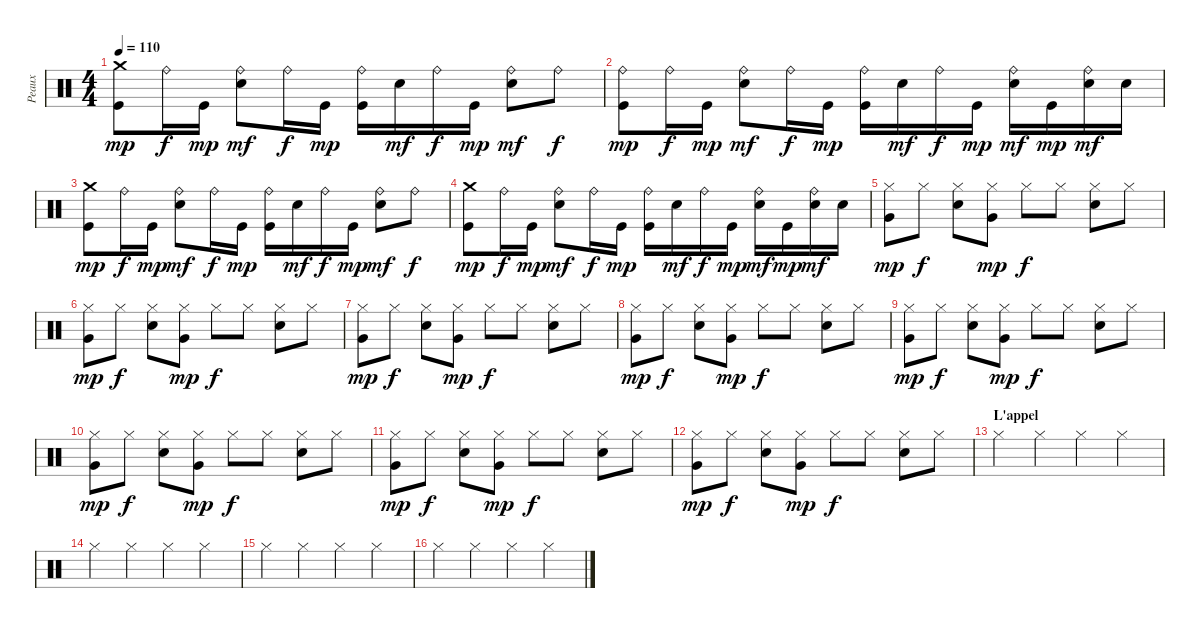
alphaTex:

\track ("Peaux" "Peaux") {instrument percussion}
\staff {score}
\articulation defaults
\ts (4 4)
\tempo 110
\clef neutral
\ks c
("Crash medium (hit)" "Kick (hit)").8{dy mp} "Ride (bell)".16{dy f} "Kick (hit)".16{dy mp} ("Ride (bell)" "Snare (hit) 2").8{dy mf} "Ride (bell)".16{dy f} "Kick (hit)".16{dy mp} ("Ride (bell)" "Kick (hit)").16 "Snare (hit) 2".16{dy mf} "Ride (bell)".16{dy f} "Kick (hit)".16{dy mp} ("Ride (bell)" "Snare (hit) 2").8{dy mf} "Ride (bell)".8{dy f} |
("Ride (bell)" "Kick (hit)").8{dy mp} "Ride (bell)".16{dy f} "Kick (hit)".16{dy mp} ("Ride (bell)" "Snare (hit) 2").8{dy mf} "Ride (bell)".16{dy f} "Kick (hit)".16{dy mp} ("Ride (bell)" "Kick (hit)").16 "Snare (hit) 2".16{dy mf} "Ride (bell)".16{dy f} "Kick (hit)".16{dy mp} ("Ride (bell)" "Snare (hit) 2").16{dy mf} "Kick (hit)".16{dy mp} ("Ride (bell)" "Snare (hit) 2").16{dy mf} "Snare (hit) 2".16 |
("Crash medium (hit)" "Kick (hit)").8{dy mp} "Ride (bell)".16{dy f} "Kick (hit)".16{dy mp} ("Ride (bell)" "Snare (hit) 2").8{dy mf} "Ride (bell)".16{dy f} "Kick (hit)".16{dy mp} ("Ride (bell)" "Kick (hit)").16 "Snare (hit) 2".16{dy mf} "Ride (bell)".16{dy f} "Kick (hit)".16{dy mp} ("Ride (bell)" "Snare (hit) 2").8{dy mf} "Ride (bell)".8{dy f} |
("Crash medium (hit)" "Kick (hit)").8{dy mp} "Ride (bell)".16{dy f} "Kick (hit)".16{dy mp} ("Ride (bell)" "Snare (hit) 2").8{dy mf} "Ride (bell)".16{dy f} "Kick (hit)".16{dy mp} ("Ride (bell)" "Kick (hit)").16 "Snare (hit) 2".16{dy mf} "Ride (bell)".16{dy f} "Kick (hit)".16{dy mp} ("Ride (bell)" "Snare (hit) 2").16{dy mf} "Kick (hit)".16{dy mp} ("Ride (bell)" "Snare (hit) 2").16{dy mf} "Snare (hit) 2".16 |
("Hi-Hat (closed)" "Very Low Tom (hit)").8{dy mp} "Hi-Hat (closed)".8{dy f} ("Hi-Hat (closed)" "Electric Snare (hit)").8 ("Hi-Hat (closed)" "Very Low Tom (hit)").8{dy mp} "Hi-Hat (closed)".8{dy f} "Hi-Hat (closed)".8 ("Hi-Hat (closed)" "Electric Snare (hit)").8 "Hi-Hat (closed)".8 |
("Hi-Hat (closed)" "Very Low Tom (hit)").8{dy mp} "Hi-Hat (closed)".8{dy f} ("Hi-Hat (closed)" "Electric Snare (hit)").8 ("Hi-Hat (closed)" "Very Low Tom (hit)").8{dy mp} "Hi-Hat (closed)".8{dy f} "Hi-Hat (closed)".8 ("Hi-Hat (closed)" "Electric Snare (hit)").8 "Hi-Hat (closed)".8 |
("Hi-Hat (closed)" "Very Low Tom (hit)").8{dy mp} "Hi-Hat (closed)".8{dy f} ("Hi-Hat (closed)" "Electric Snare (hit)").8 ("Hi-Hat (closed)" "Very Low Tom (hit)").8{dy mp} "Hi-Hat (closed)".8{dy f} "Hi-Hat (closed)".8 ("Hi-Hat (closed)" "Electric Snare (hit)").8 "Hi-Hat (closed)".8 |
("Hi-Hat (closed)" "Very Low Tom (hit)").8{dy mp} "Hi-Hat (closed)".8{dy f} ("Hi-Hat (closed)" "Electric Snare (hit)").8 ("Hi-Hat (closed)" "Very Low Tom (hit)").8{dy mp} "Hi-Hat (closed)".8{dy f} "Hi-Hat (closed)".8 ("Hi-Hat (closed)" "Electric Snare (hit)").8 "Hi-Hat (closed)".8 |
("Hi-Hat (closed)" "Very Low Tom (hit)").8{dy mp} "Hi-Hat (closed)".8{dy f} ("Hi-Hat (closed)" "Electric Snare (hit)").8 ("Hi-Hat (closed)" "Very Low Tom (hit)").8{dy mp} "Hi-Hat (closed)".8{dy f} "Hi-Hat (closed)".8 ("Hi-Hat (closed)" "Electric Snare (hit)").8 "Hi-Hat (closed)".8 |
("Hi-Hat (closed)" "Very Low Tom (hit)").8{dy mp} "Hi-Hat (closed)".8{dy f} ("Hi-Hat (closed)" "Electric Snare (hit)").8 ("Hi-Hat (closed)" "Very Low Tom (hit)").8{dy mp} "Hi-Hat (closed)".8{dy f} "Hi-Hat (closed)".8 ("Hi-Hat (closed)" "Electric Snare (hit)").8 "Hi-Hat (closed)".8 |
("Hi-Hat (closed)" "Very Low Tom (hit)").8{dy mp} "Hi-Hat (closed)".8{dy f} ("Hi-Hat (closed)" "Electric Snare (hit)").8 ("Hi-Hat (closed)" "Very Low Tom (hit)").8{dy mp} "Hi-Hat (closed)".8{dy f} "Hi-Hat (closed)".8 ("Hi-Hat (closed)" "Electric Snare (hit)").8 "Hi-Hat (closed)".8 |
("Hi-Hat (closed)" "Very Low Tom (hit)").8{dy mp} "Hi-Hat (closed)".8{dy f} ("Hi-Hat (closed)" "Electric Snare (hit)").8 ("Hi-Hat (closed)" "Very Low Tom (hit)").8{dy mp} "Hi-Hat (closed)".8{dy f} "Hi-Hat (closed)".8 ("Hi-Hat (closed)" "Electric Snare (hit)").8 "Hi-Hat (closed)".8 |
\section ("" "L'appel")
"Hi-Hat (closed)".4 "Hi-Hat (closed)".4 "Hi-Hat (closed)".4 "Hi-Hat (closed)".4 |
"Hi-Hat (closed)".4 "Hi-Hat (closed)".4 "Hi-Hat (closed)".4 "Hi-Hat (closed)".4 |
"Hi-Hat (closed)".4 "Hi-Hat (closed)".4 "Hi-Hat (closed)".4 "Hi-Hat (closed)".4 |
"Hi-Hat (closed)".4 "Hi-Hat (closed)".4 "Hi-Hat (closed)".4 "Hi-Hat (closed)".4
